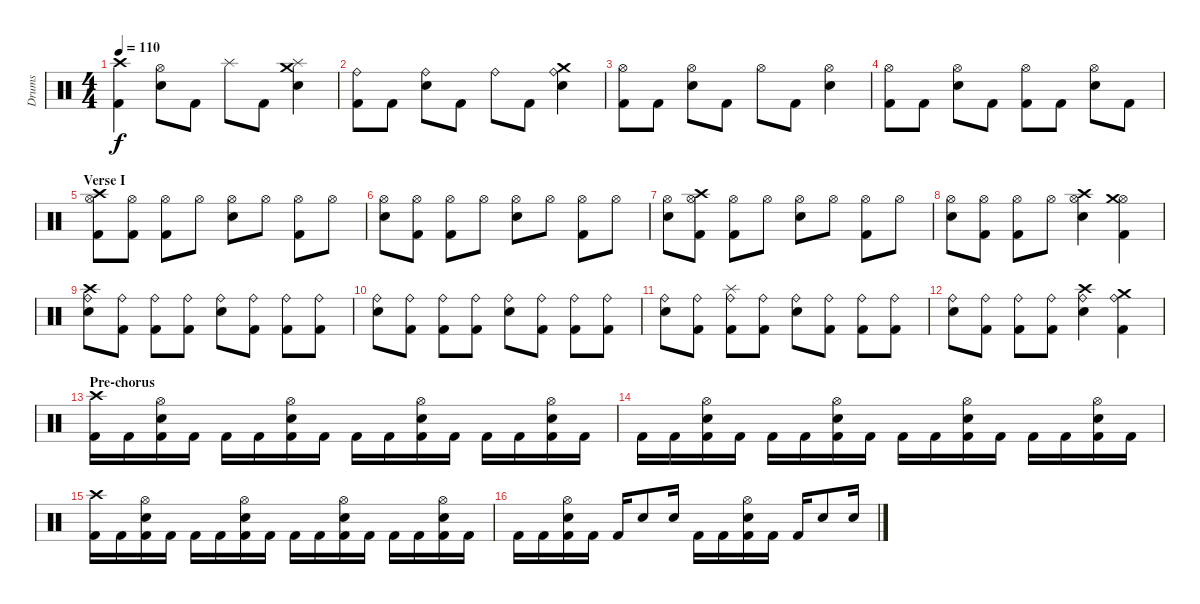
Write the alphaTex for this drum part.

\track ("Drums" "Drums") {instrument percussion}
\staff {score}
\articulation defaults
\ts (4 4)
\tempo 110
\clef neutral
\ks c
("Crash high (hit)" "Kick (hit) 2").4{dy f} ("Electric Snare (hit)" "Hi-Hat (open)").8 "Kick (hit) 2".8 "Splash (hit)".8 "Kick (hit) 2".8 ("Splash (hit)" "Electric Snare (hit)" "Crash medium (hit)").4 |
("Ride (bell)" "Kick (hit) 2").8 "Kick (hit) 2".8 ("Ride (bell)" "Electric Snare (hit)").8 "Kick (hit) 2".8 "Ride (bell)".8 "Kick (hit) 2".8 ("Ride (bell)" "Electric Snare (hit)" "Crash medium (hit)").4 |
("Hi-Hat (open)" "Kick (hit) 2").8 "Kick (hit) 2".8 ("Hi-Hat (open)" "Electric Snare (hit)").8 "Kick (hit) 2".8 "Hi-Hat (open)".8 "Kick (hit) 2".8 ("Hi-Hat (open)" "Electric Snare (hit)").4 |
("Hi-Hat (open)" "Kick (hit) 2").8 "Kick (hit) 2".8 ("Hi-Hat (open)" "Electric Snare (hit)").8 "Kick (hit) 2".8 ("Hi-Hat (open)" "Kick (hit) 2").8 "Kick (hit) 2".8 ("Hi-Hat (open)" "Electric Snare (hit)").8 "Kick (hit) 2".8 |
\section ("" "Verse I")
("Hi-Hat (open)" "Kick (hit) 2" "Crash high (hit)").8 ("Hi-Hat (open)" "Kick (hit) 2").8 ("Hi-Hat (open)" "Kick (hit) 2").8 "Hi-Hat (open)".8 ("Hi-Hat (open)" "Electric Snare (hit)").8 "Hi-Hat (open)".8 ("Hi-Hat (open)" "Kick (hit) 2").8 "Hi-Hat (open)".8 |
("Hi-Hat (open)" "Electric Snare (hit)").8 ("Hi-Hat (open)" "Kick (hit) 2").8 ("Hi-Hat (open)" "Kick (hit) 2").8 "Hi-Hat (open)".8 ("Hi-Hat (open)" "Electric Snare (hit)").8 "Hi-Hat (open)".8 ("Hi-Hat (open)" "Kick (hit) 2").8 "Hi-Hat (open)".8 |
("Hi-Hat (open)" "Electric Snare (hit)").8 ("Hi-Hat (open)" "Kick (hit) 2" "Crash high (hit)").8 ("Hi-Hat (open)" "Kick (hit) 2").8 "Hi-Hat (open)".8 ("Hi-Hat (open)" "Electric Snare (hit)").8 "Hi-Hat (open)".8 ("Hi-Hat (open)" "Kick (hit) 2").8 "Hi-Hat (open)".8 |
("Hi-Hat (open)" "Electric Snare (hit)").8 ("Hi-Hat (open)" "Kick (hit) 2").8 ("Hi-Hat (open)" "Kick (hit) 2").8 "Hi-Hat (open)".8 ("Hi-Hat (open)" "Electric Snare (hit)" "Crash high (hit)").4 ("Hi-Hat (open)" "Kick (hit) 2" "Crash medium (hit)").4 |
("Ride (bell)" "Electric Snare (hit)" "Crash high (hit)").8 ("Ride (bell)" "Kick (hit) 2").8 ("Ride (bell)" "Kick (hit) 2").8 ("Ride (bell)" "Kick (hit) 2").8 ("Ride (bell)" "Electric Snare (hit)").8 ("Ride (bell)" "Kick (hit) 2").8 ("Ride (bell)" "Kick (hit) 2").8 ("Ride (bell)" "Kick (hit) 2").8 |
("Ride (bell)" "Electric Snare (hit)").8 ("Ride (bell)" "Kick (hit) 2").8 ("Ride (bell)" "Kick (hit) 2").8 ("Ride (bell)" "Kick (hit) 2").8 ("Ride (bell)" "Electric Snare (hit)").8 ("Ride (bell)" "Kick (hit) 2").8 ("Ride (bell)" "Kick (hit) 2").8 ("Ride (bell)" "Kick (hit) 2").8 |
("Ride (bell)" "Electric Snare (hit)").8 ("Ride (bell)" "Kick (hit) 2").8 ("Ride (bell)" "Kick (hit) 2" "Splash (hit)").8 ("Ride (bell)" "Kick (hit) 2").8 ("Ride (bell)" "Electric Snare (hit)").8 ("Ride (bell)" "Kick (hit) 2").8 ("Ride (bell)" "Kick (hit) 2").8 ("Ride (bell)" "Kick (hit) 2").8 |
("Ride (bell)" "Electric Snare (hit)").8 ("Ride (bell)" "Kick (hit) 2").8 ("Ride (bell)" "Kick (hit) 2").8 ("Ride (bell)" "Kick (hit) 2").8 ("Ride (bell)" "Electric Snare (hit)" "Crash high (hit)").4 ("Ride (bell)" "Kick (hit) 2" "Crash medium (hit)").4 |
\section ("" "Pre-chorus")
("Kick (hit) 2" "Crash high (hit)").16 "Kick (hit) 2".16 ("Kick (hit) 2" "Electric Snare (hit)" "Hi-Hat (open)").16 "Kick (hit) 2".16 "Kick (hit) 2".16 "Kick (hit) 2".16 ("Kick (hit) 2" "Electric Snare (hit)" "Hi-Hat (open)").16 "Kick (hit) 2".16 "Kick (hit) 2".16 "Kick (hit) 2".16 ("Kick (hit) 2" "Electric Snare (hit)" "Hi-Hat (open)").16 "Kick (hit) 2".16 "Kick (hit) 2".16 "Kick (hit) 2".16 ("Kick (hit) 2" "Electric Snare (hit)" "Hi-Hat (open)").16 "Kick (hit) 2".16 |
"Kick (hit) 2".16 "Kick (hit) 2".16 ("Kick (hit) 2" "Electric Snare (hit)" "Hi-Hat (open)").16 "Kick (hit) 2".16 "Kick (hit) 2".16 "Kick (hit) 2".16 ("Kick (hit) 2" "Electric Snare (hit)" "Hi-Hat (open)").16 "Kick (hit) 2".16 "Kick (hit) 2".16 "Kick (hit) 2".16 ("Kick (hit) 2" "Electric Snare (hit)" "Hi-Hat (open)").16 "Kick (hit) 2".16 "Kick (hit) 2".16 "Kick (hit) 2".16 ("Kick (hit) 2" "Electric Snare (hit)" "Hi-Hat (open)").16 "Kick (hit) 2".16 |
("Kick (hit) 2" "Crash high (hit)").16 "Kick (hit) 2".16 ("Kick (hit) 2" "Electric Snare (hit)" "Hi-Hat (open)").16 "Kick (hit) 2".16 "Kick (hit) 2".16 "Kick (hit) 2".16 ("Kick (hit) 2" "Electric Snare (hit)" "Hi-Hat (open)").16 "Kick (hit) 2".16 "Kick (hit) 2".16 "Kick (hit) 2".16 ("Kick (hit) 2" "Electric Snare (hit)" "Hi-Hat (open)").16 "Kick (hit) 2".16 "Kick (hit) 2".16 "Kick (hit) 2".16 ("Kick (hit) 2" "Electric Snare (hit)" "Hi-Hat (open)").16 "Kick (hit) 2".16 |
"Kick (hit) 2".16 "Kick (hit) 2".16 ("Kick (hit) 2" "Electric Snare (hit)" "Hi-Hat (open)").16 "Kick (hit) 2".16 "Kick (hit) 2".16 "Electric Snare (hit)".8 "Electric Snare (hit)".16 "Kick (hit) 2".16 "Kick (hit) 2".16 ("Kick (hit) 2" "Electric Snare (hit)" "Hi-Hat (open)").16 "Kick (hit) 2".16 "Kick (hit) 2".16 "Electric Snare (hit)".8 "Electric Snare (hit)".16
